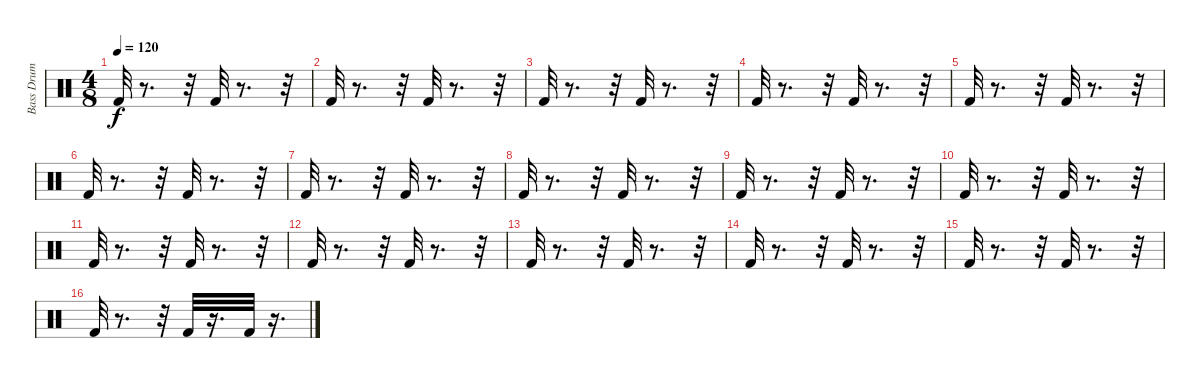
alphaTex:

\track ("Bass Drum" "Bass Drum") {instrument percussion}
\staff {score}
\articulation defaults
\ts (4 8)
\tempo 120
\clef neutral
\ks c "Kick (hit) 2".32{dy f}
r.8{d} r.32 "Kick (hit) 2".32 r.8{d} r.32 |
"Kick (hit) 2".32 r.8{d} r.32 "Kick (hit) 2".32 r.8{d} r.32 |
"Kick (hit) 2".32 r.8{d} r.32 "Kick (hit) 2".32 r.8{d} r.32 |
"Kick (hit) 2".32 r.8{d} r.32 "Kick (hit) 2".32 r.8{d} r.32 |
"Kick (hit) 2".32 r.8{d} r.32 "Kick (hit) 2".32 r.8{d} r.32 |
"Kick (hit) 2".32 r.8{d} r.32 "Kick (hit) 2".32 r.8{d} r.32 |
"Kick (hit) 2".32 r.8{d} r.32 "Kick (hit) 2".32 r.8{d} r.32 |
"Kick (hit) 2".32 r.8{d} r.32 "Kick (hit) 2".32 r.8{d} r.32 |
"Kick (hit) 2".32 r.8{d} r.32 "Kick (hit) 2".32 r.8{d} r.32 |
"Kick (hit) 2".32 r.8{d} r.32 "Kick (hit) 2".32 r.8{d} r.32 |
"Kick (hit) 2".32 r.8{d} r.32 "Kick (hit) 2".32 r.8{d} r.32 |
"Kick (hit) 2".32 r.8{d} r.32 "Kick (hit) 2".32 r.8{d} r.32 |
"Kick (hit) 2".32 r.8{d} r.32 "Kick (hit) 2".32 r.8{d} r.32 |
"Kick (hit) 2".32 r.8{d} r.32 "Kick (hit) 2".32 r.8{d} r.32 |
"Kick (hit) 2".32 r.8{d} r.32 "Kick (hit) 2".32 r.8{d} r.32 |
"Kick (hit) 2".32 r.8{d} r.32 "Kick (hit) 2".32 r.16{d} "Kick (hit) 2".32 r.16{d}
